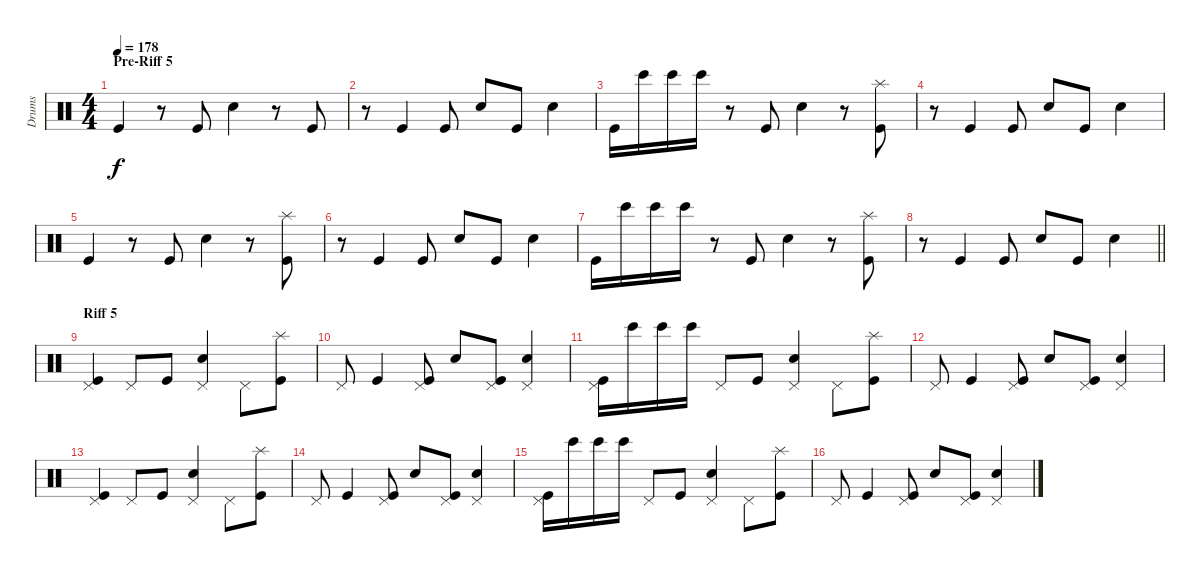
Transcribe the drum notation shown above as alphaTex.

\track ("Drums" "Drums") {instrument percussion}
\staff {score}
\articulation defaults
\ts (4 4)
\section ("" "Pre-Riff 5")
\tempo 178
\clef neutral
\ks c "Kick (hit)".4{dy f}
r.8 "Kick (hit)".8 "Electric Snare (hit)".4 r.8 "Kick (hit)".8 |
r.8 "Kick (hit)".4 "Kick (hit)".8 "Electric Snare (hit)".8 "Kick (hit)".8 "Electric Snare (hit)".4 |
"Kick (hit)".16 "Bongo High (hit)".16 "Bongo High (hit)".16 "Bongo High (hit)".16 r.8 "Kick (hit)".8 "Electric Snare (hit)".4 r.8 ("Kick (hit)" "Splash (hit)").8 |
r.8 "Kick (hit)".4 "Kick (hit)".8 "Electric Snare (hit)".8 "Kick (hit)".8 "Electric Snare (hit)".4 |
"Kick (hit)".4 r.8 "Kick (hit)".8 "Electric Snare (hit)".4 r.8 ("Kick (hit)" "Splash (hit)").8 |
r.8 "Kick (hit)".4 "Kick (hit)".8 "Electric Snare (hit)".8 "Kick (hit)".8 "Electric Snare (hit)".4 |
"Kick (hit)".16 "Bongo High (hit)".16 "Bongo High (hit)".16 "Bongo High (hit)".16 r.8 "Kick (hit)".8 "Electric Snare (hit)".4 r.8 ("Kick (hit)" "Splash (hit)").8 |
\barLineRight lightlight
r.8 "Kick (hit)".4 "Kick (hit)".8 "Electric Snare (hit)".8 "Kick (hit)".8 "Electric Snare (hit)".4 |
\section ("" "Riff 5")
("Kick (hit)" "Pedal Hi-Hat (hit)").4 "Pedal Hi-Hat (hit)".8 "Kick (hit)".8 ("Electric Snare (hit)" "Pedal Hi-Hat (hit)").4 "Pedal Hi-Hat (hit)".8 ("Kick (hit)" "Splash (hit)").8 |
"Pedal Hi-Hat (hit)".8 "Kick (hit)".4 ("Kick (hit)" "Pedal Hi-Hat (hit)").8 "Electric Snare (hit)".8 ("Kick (hit)" "Pedal Hi-Hat (hit)").8 ("Electric Snare (hit)" "Pedal Hi-Hat (hit)").4 |
("Kick (hit)" "Pedal Hi-Hat (hit)").16 "Bongo High (hit)".16 "Bongo High (hit)".16 "Bongo High (hit)".16 "Pedal Hi-Hat (hit)".8 "Kick (hit)".8 ("Electric Snare (hit)" "Pedal Hi-Hat (hit)").4 "Pedal Hi-Hat (hit)".8 ("Kick (hit)" "Splash (hit)").8 |
"Pedal Hi-Hat (hit)".8 "Kick (hit)".4 ("Kick (hit)" "Pedal Hi-Hat (hit)").8 "Electric Snare (hit)".8 ("Kick (hit)" "Pedal Hi-Hat (hit)").8 ("Electric Snare (hit)" "Pedal Hi-Hat (hit)").4 |
("Kick (hit)" "Pedal Hi-Hat (hit)").4 "Pedal Hi-Hat (hit)".8 "Kick (hit)".8 ("Electric Snare (hit)" "Pedal Hi-Hat (hit)").4 "Pedal Hi-Hat (hit)".8 ("Kick (hit)" "Splash (hit)").8 |
"Pedal Hi-Hat (hit)".8 "Kick (hit)".4 ("Kick (hit)" "Pedal Hi-Hat (hit)").8 "Electric Snare (hit)".8 ("Kick (hit)" "Pedal Hi-Hat (hit)").8 ("Electric Snare (hit)" "Pedal Hi-Hat (hit)").4 |
("Kick (hit)" "Pedal Hi-Hat (hit)").16 "Bongo High (hit)".16 "Bongo High (hit)".16 "Bongo High (hit)".16 "Pedal Hi-Hat (hit)".8 "Kick (hit)".8 ("Electric Snare (hit)" "Pedal Hi-Hat (hit)").4 "Pedal Hi-Hat (hit)".8 ("Kick (hit)" "Splash (hit)").8 |
"Pedal Hi-Hat (hit)".8 "Kick (hit)".4 ("Kick (hit)" "Pedal Hi-Hat (hit)").8 "Electric Snare (hit)".8 ("Kick (hit)" "Pedal Hi-Hat (hit)").8 ("Electric Snare (hit)" "Pedal Hi-Hat (hit)").4
